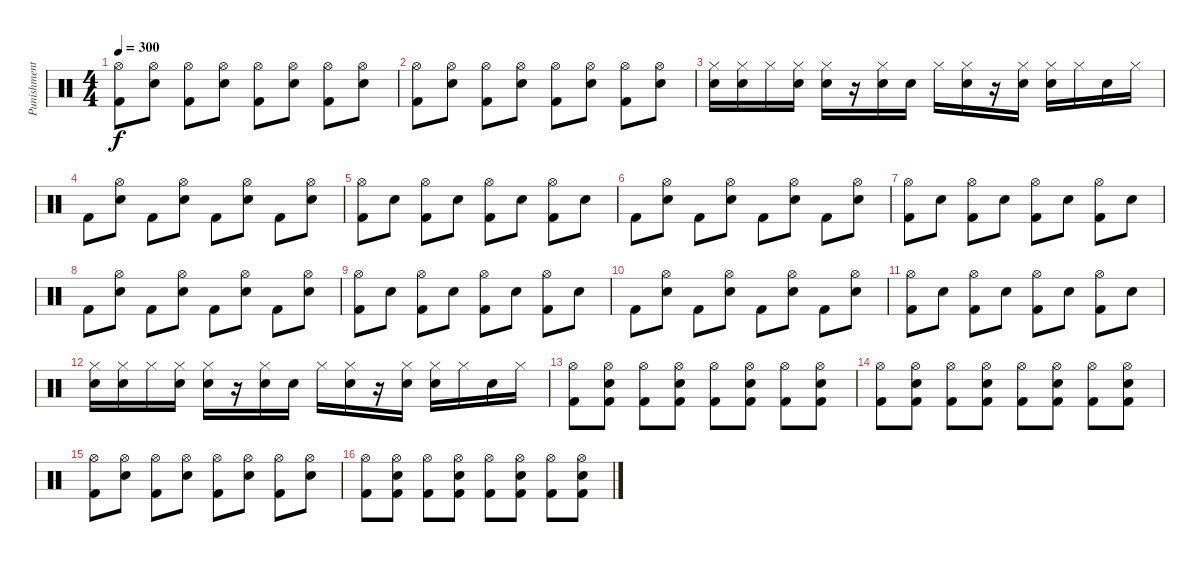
\track ("Punishment" "Punishment") {instrument percussion}
\staff {score}
\articulation defaults
\ts (4 4)
\tempo 300
\clef neutral
\ks c
("Kick (hit) 2" "Hi-Hat (open)").8{dy f} ("Electric Snare (hit)" "Hi-Hat (open)").8 ("Kick (hit) 2" "Hi-Hat (open)").8 ("Electric Snare (hit)" "Hi-Hat (open)").8 ("Kick (hit) 2" "Hi-Hat (open)").8 ("Electric Snare (hit)" "Hi-Hat (open)").8 ("Kick (hit) 2" "Hi-Hat (open)").8 ("Electric Snare (hit)" "Hi-Hat (open)").8 |
("Kick (hit) 2" "Hi-Hat (open)").8 ("Electric Snare (hit)" "Hi-Hat (open)").8 ("Kick (hit) 2" "Hi-Hat (open)").8 ("Electric Snare (hit)" "Hi-Hat (open)").8 ("Kick (hit) 2" "Hi-Hat (open)").8 ("Electric Snare (hit)" "Hi-Hat (open)").8 ("Kick (hit) 2" "Hi-Hat (open)").8 ("Electric Snare (hit)" "Hi-Hat (open)").8 |
("Hi-Hat (closed)" "Electric Snare (hit)").16 ("Hi-Hat (closed)" "Electric Snare (hit)").16 "Hi-Hat (closed)".16 ("Hi-Hat (closed)" "Electric Snare (hit)").16 ("Hi-Hat (closed)" "Electric Snare (hit)").16 r.16 ("Hi-Hat (closed)" "Electric Snare (hit)").16 "Electric Snare (hit)".16 "Hi-Hat (closed)".16 ("Hi-Hat (closed)" "Electric Snare (hit)").16 r.16 ("Hi-Hat (closed)" "Electric Snare (hit)").16 ("Hi-Hat (closed)" "Electric Snare (hit)").16 "Hi-Hat (closed)".16 "Electric Snare (hit)".16 "Hi-Hat (closed)".16 |
"Kick (hit) 2".8 ("Electric Snare (hit)" "Hi-Hat (open)").8 "Kick (hit) 2".8 ("Electric Snare (hit)" "Hi-Hat (open)").8 "Kick (hit) 2".8 ("Electric Snare (hit)" "Hi-Hat (open)").8 "Kick (hit) 2".8 ("Electric Snare (hit)" "Hi-Hat (open)").8 |
("Kick (hit) 2" "Hi-Hat (open)").8 "Electric Snare (hit)".8 ("Kick (hit) 2" "Hi-Hat (open)").8 "Electric Snare (hit)".8 ("Kick (hit) 2" "Hi-Hat (open)").8 "Electric Snare (hit)".8 ("Kick (hit) 2" "Hi-Hat (open)").8 "Electric Snare (hit)".8 |
"Kick (hit) 2".8 ("Electric Snare (hit)" "Hi-Hat (open)").8 "Kick (hit) 2".8 ("Electric Snare (hit)" "Hi-Hat (open)").8 "Kick (hit) 2".8 ("Electric Snare (hit)" "Hi-Hat (open)").8 "Kick (hit) 2".8 ("Electric Snare (hit)" "Hi-Hat (open)").8 |
("Kick (hit) 2" "Hi-Hat (open)").8 "Electric Snare (hit)".8 ("Kick (hit) 2" "Hi-Hat (open)").8 "Electric Snare (hit)".8 ("Kick (hit) 2" "Hi-Hat (open)").8 "Electric Snare (hit)".8 ("Kick (hit) 2" "Hi-Hat (open)").8 "Electric Snare (hit)".8 |
"Kick (hit) 2".8 ("Electric Snare (hit)" "Hi-Hat (open)").8 "Kick (hit) 2".8 ("Electric Snare (hit)" "Hi-Hat (open)").8 "Kick (hit) 2".8 ("Electric Snare (hit)" "Hi-Hat (open)").8 "Kick (hit) 2".8 ("Electric Snare (hit)" "Hi-Hat (open)").8 |
("Kick (hit) 2" "Hi-Hat (open)").8 "Electric Snare (hit)".8 ("Kick (hit) 2" "Hi-Hat (open)").8 "Electric Snare (hit)".8 ("Kick (hit) 2" "Hi-Hat (open)").8 "Electric Snare (hit)".8 ("Kick (hit) 2" "Hi-Hat (open)").8 "Electric Snare (hit)".8 |
"Kick (hit) 2".8 ("Electric Snare (hit)" "Hi-Hat (open)").8 "Kick (hit) 2".8 ("Electric Snare (hit)" "Hi-Hat (open)").8 "Kick (hit) 2".8 ("Electric Snare (hit)" "Hi-Hat (open)").8 "Kick (hit) 2".8 ("Electric Snare (hit)" "Hi-Hat (open)").8 |
("Kick (hit) 2" "Hi-Hat (open)").8 "Electric Snare (hit)".8 ("Kick (hit) 2" "Hi-Hat (open)").8 "Electric Snare (hit)".8 ("Kick (hit) 2" "Hi-Hat (open)").8 "Electric Snare (hit)".8 ("Kick (hit) 2" "Hi-Hat (open)").8 "Electric Snare (hit)".8 |
("Hi-Hat (closed)" "Electric Snare (hit)").16 ("Hi-Hat (closed)" "Electric Snare (hit)").16 "Hi-Hat (closed)".16 ("Hi-Hat (closed)" "Electric Snare (hit)").16 ("Hi-Hat (closed)" "Electric Snare (hit)").16 r.16 ("Hi-Hat (closed)" "Electric Snare (hit)").16 "Electric Snare (hit)".16 "Hi-Hat (closed)".16 ("Hi-Hat (closed)" "Electric Snare (hit)").16 r.16 ("Hi-Hat (closed)" "Electric Snare (hit)").16 ("Hi-Hat (closed)" "Electric Snare (hit)").16 "Hi-Hat (closed)".16 "Electric Snare (hit)".16 "Hi-Hat (closed)".16 |
("Kick (hit) 2" "Hi-Hat (open)").8 ("Kick (hit) 2" "Electric Snare (hit)" "Hi-Hat (open)").8 ("Kick (hit) 2" "Hi-Hat (open)").8 ("Kick (hit) 2" "Electric Snare (hit)" "Hi-Hat (open)").8 ("Kick (hit) 2" "Hi-Hat (open)").8 ("Kick (hit) 2" "Electric Snare (hit)" "Hi-Hat (open)").8 ("Kick (hit) 2" "Hi-Hat (open)").8 ("Kick (hit) 2" "Electric Snare (hit)" "Hi-Hat (open)").8 |
("Kick (hit) 2" "Hi-Hat (open)").8 ("Kick (hit) 2" "Electric Snare (hit)" "Hi-Hat (open)").8 ("Kick (hit) 2" "Hi-Hat (open)").8 ("Kick (hit) 2" "Electric Snare (hit)" "Hi-Hat (open)").8 ("Kick (hit) 2" "Hi-Hat (open)").8 ("Kick (hit) 2" "Electric Snare (hit)" "Hi-Hat (open)").8 ("Kick (hit) 2" "Hi-Hat (open)").8 ("Kick (hit) 2" "Electric Snare (hit)" "Hi-Hat (open)").8 |
("Kick (hit) 2" "Hi-Hat (open)").8 ("Electric Snare (hit)" "Hi-Hat (open)").8 ("Kick (hit) 2" "Hi-Hat (open)").8 ("Electric Snare (hit)" "Hi-Hat (open)").8 ("Kick (hit) 2" "Hi-Hat (open)").8 ("Electric Snare (hit)" "Hi-Hat (open)").8 ("Kick (hit) 2" "Hi-Hat (open)").8 ("Electric Snare (hit)" "Hi-Hat (open)").8 |
("Kick (hit) 2" "Hi-Hat (open)").8 ("Kick (hit) 2" "Electric Snare (hit)" "Hi-Hat (open)").8 ("Kick (hit) 2" "Hi-Hat (open)").8 ("Kick (hit) 2" "Electric Snare (hit)" "Hi-Hat (open)").8 ("Kick (hit) 2" "Hi-Hat (open)").8 ("Kick (hit) 2" "Electric Snare (hit)" "Hi-Hat (open)").8 ("Kick (hit) 2" "Hi-Hat (open)").8 ("Kick (hit) 2" "Electric Snare (hit)" "Hi-Hat (open)").8
